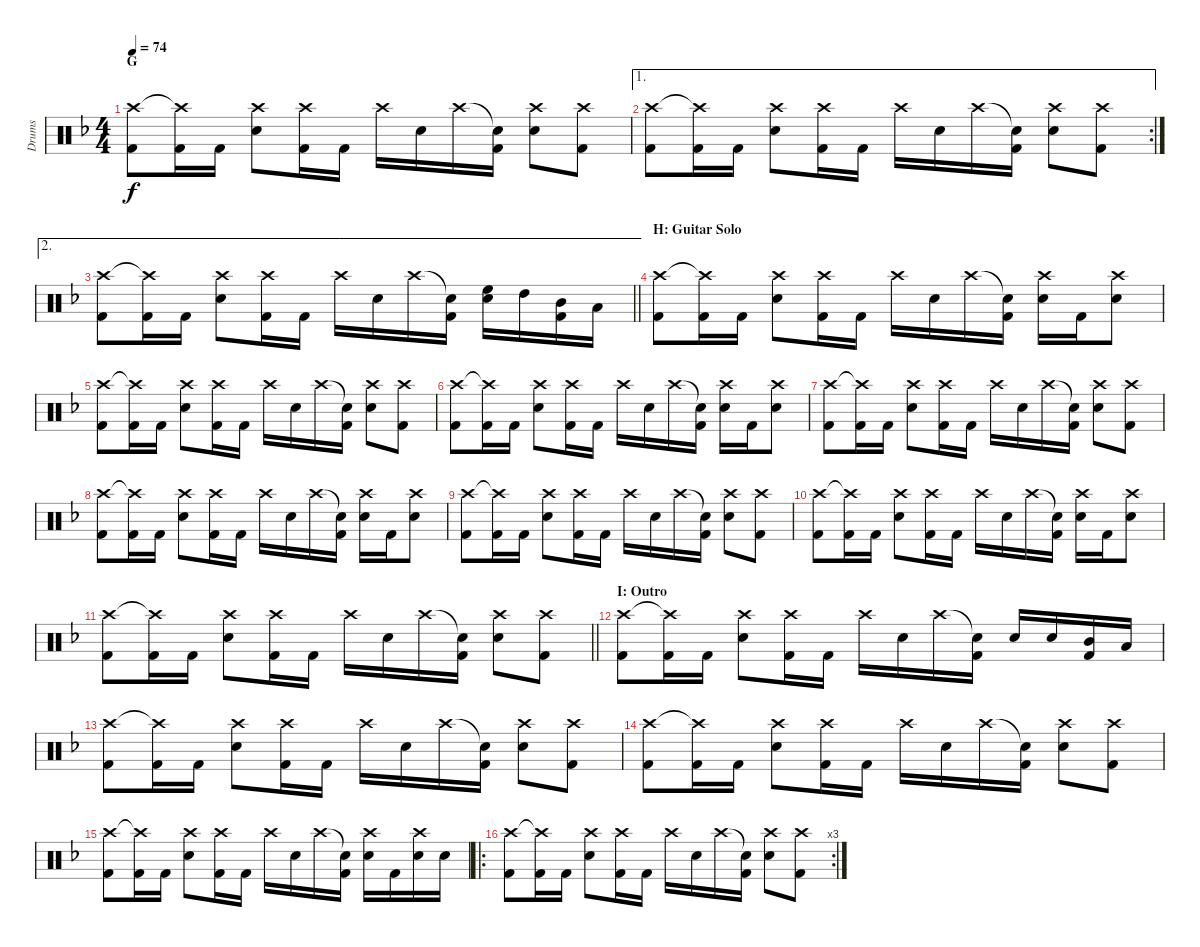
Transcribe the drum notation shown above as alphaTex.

\track ("Drums" "Drums") {instrument percussion}
\staff {score}
\articulation defaults
\ts (4 4)
\section ("" "G")
\tempo 74
\clef neutral
\ks dminor
("Crash high (hit)" "Kick (hit) 2").8{dy f} ("Crash high (hit)"{t} "Kick (hit) 2").16 "Kick (hit) 2".16 ("Crash high (hit)" "Snare (hit) 2").8 ("Crash high (hit)" "Kick (hit) 2").16 "Kick (hit) 2".16 "Crash high (hit)".16 "Snare (hit) 2".16 "Crash high (hit)".16 ("Snare (hit)"{t} "Kick (hit) 2").16 ("Crash high (hit)" "Snare (hit) 2").8 ("Crash high (hit)" "Kick (hit) 2").8 |
\ae 1
\rc 2
("Crash high (hit)" "Kick (hit) 2").8 ("Crash high (hit)"{t} "Kick (hit) 2").16 "Kick (hit) 2".16 ("Crash high (hit)" "Snare (hit) 2").8 ("Crash high (hit)" "Kick (hit) 2").16 "Kick (hit) 2".16 "Crash high (hit)".16 "Snare (hit) 2".16 "Crash high (hit)".16 ("Snare (hit)"{t} "Kick (hit) 2").16 ("Crash high (hit)" "Snare (hit) 2").8 ("Crash high (hit)" "Kick (hit) 2").8 |
\ae 2
\barLineRight lightlight
("Crash high (hit)" "Kick (hit) 2").8 ("Crash high (hit)"{t} "Kick (hit) 2").16 "Kick (hit) 2".16 ("Crash high (hit)" "Snare (hit) 2").8 ("Crash high (hit)" "Kick (hit) 2").16 "Kick (hit) 2".16 "Crash high (hit)".16 "Snare (hit) 2".16 "Crash high (hit)".16 ("Snare (hit)"{t} "Kick (hit) 2").16 ("High Floor Tom (hit)" "Snare (hit) 2").16 "High Tom (hit)".16 ("Mid Tom (hit)" "Kick (hit) 2").16 "Low Tom (hit)".16 |
\section ("" "H: Guitar Solo")
("Crash high (hit)" "Kick (hit) 2").8 ("Crash high (hit)"{t} "Kick (hit) 2").16 "Kick (hit) 2".16 ("Crash high (hit)" "Snare (hit) 2").8 ("Crash high (hit)" "Kick (hit) 2").16 "Kick (hit) 2".16 "Crash high (hit)".16 "Snare (hit) 2".16 "Crash high (hit)".16 ("Snare (hit)"{t} "Kick (hit) 2").16 ("Crash high (hit)" "Snare (hit) 2").16 "Kick (hit) 2".16 ("Crash high (hit)" "Snare (hit) 2").8 |
("Crash high (hit)" "Kick (hit) 2").8 ("Crash high (hit)"{t} "Kick (hit) 2").16 "Kick (hit) 2".16 ("Crash high (hit)" "Snare (hit) 2").8 ("Crash high (hit)" "Kick (hit) 2").16 "Kick (hit) 2".16 "Crash high (hit)".16 "Snare (hit) 2".16 "Crash high (hit)".16 ("Snare (hit)"{t} "Kick (hit) 2").16 ("Crash high (hit)" "Snare (hit) 2").8 ("Crash high (hit)" "Kick (hit) 2").8 |
("Crash high (hit)" "Kick (hit) 2").8 ("Crash high (hit)"{t} "Kick (hit) 2").16 "Kick (hit) 2".16 ("Crash high (hit)" "Snare (hit) 2").8 ("Crash high (hit)" "Kick (hit) 2").16 "Kick (hit) 2".16 "Crash high (hit)".16 "Snare (hit) 2".16 "Crash high (hit)".16 ("Snare (hit)"{t} "Kick (hit) 2").16 ("Crash high (hit)" "Snare (hit) 2").16 "Kick (hit) 2".16 ("Crash high (hit)" "Snare (hit) 2").8 |
("Crash high (hit)" "Kick (hit) 2").8 ("Crash high (hit)"{t} "Kick (hit) 2").16 "Kick (hit) 2".16 ("Crash high (hit)" "Snare (hit) 2").8 ("Crash high (hit)" "Kick (hit) 2").16 "Kick (hit) 2".16 "Crash high (hit)".16 "Snare (hit) 2".16 "Crash high (hit)".16 ("Snare (hit)"{t} "Kick (hit) 2").16 ("Crash high (hit)" "Snare (hit) 2").8 ("Crash high (hit)" "Kick (hit) 2").8 |
("Crash high (hit)" "Kick (hit) 2").8 ("Crash high (hit)"{t} "Kick (hit) 2").16 "Kick (hit) 2".16 ("Crash high (hit)" "Snare (hit) 2").8 ("Crash high (hit)" "Kick (hit) 2").16 "Kick (hit) 2".16 "Crash high (hit)".16 "Snare (hit) 2".16 "Crash high (hit)".16 ("Snare (hit)"{t} "Kick (hit) 2").16 ("Crash high (hit)" "Snare (hit) 2").16 "Kick (hit) 2".16 ("Crash high (hit)" "Snare (hit) 2").8 |
("Crash high (hit)" "Kick (hit) 2").8 ("Crash high (hit)"{t} "Kick (hit) 2").16 "Kick (hit) 2".16 ("Crash high (hit)" "Snare (hit) 2").8 ("Crash high (hit)" "Kick (hit) 2").16 "Kick (hit) 2".16 "Crash high (hit)".16 "Snare (hit) 2".16 "Crash high (hit)".16 ("Snare (hit)"{t} "Kick (hit) 2").16 ("Crash high (hit)" "Snare (hit) 2").8 ("Crash high (hit)" "Kick (hit) 2").8 |
("Crash high (hit)" "Kick (hit) 2").8 ("Crash high (hit)"{t} "Kick (hit) 2").16 "Kick (hit) 2".16 ("Crash high (hit)" "Snare (hit) 2").8 ("Crash high (hit)" "Kick (hit) 2").16 "Kick (hit) 2".16 "Crash high (hit)".16 "Snare (hit) 2".16 "Crash high (hit)".16 ("Snare (hit)"{t} "Kick (hit) 2").16 ("Crash high (hit)" "Snare (hit) 2").16 "Kick (hit) 2".16 ("Crash high (hit)" "Snare (hit) 2").8 |
\barLineRight lightlight
("Crash high (hit)" "Kick (hit) 2").8 ("Crash high (hit)"{t} "Kick (hit) 2").16 "Kick (hit) 2".16 ("Crash high (hit)" "Snare (hit) 2").8 ("Crash high (hit)" "Kick (hit) 2").16 "Kick (hit) 2".16 "Crash high (hit)".16 "Snare (hit) 2".16 "Crash high (hit)".16 ("Snare (hit)"{t} "Kick (hit) 2").16 ("Crash high (hit)" "Snare (hit) 2").8 ("Crash high (hit)" "Kick (hit) 2").8 |
\section ("" "I: Outro")
("Crash high (hit)" "Kick (hit) 2").8 ("Crash high (hit)"{t} "Kick (hit) 2").16 "Kick (hit) 2".16 ("Crash high (hit)" "Snare (hit) 2").8 ("Crash high (hit)" "Kick (hit) 2").16 "Kick (hit) 2".16 "Crash high (hit)".16 "Snare (hit) 2".16 "Crash high (hit)".16 ("Snare (hit)"{t} "Kick (hit) 2").16 "Snare (hit) 2".16 "Snare (hit) 2".16 ("Mid Tom (hit)" "Kick (hit) 2").16 "Low Tom (hit)".16 |
("Crash high (hit)" "Kick (hit) 2").8 ("Crash high (hit)"{t} "Kick (hit) 2").16 "Kick (hit) 2".16 ("Crash high (hit)" "Snare (hit) 2").8 ("Crash high (hit)" "Kick (hit) 2").16 "Kick (hit) 2".16 "Crash high (hit)".16 "Snare (hit) 2".16 "Crash high (hit)".16 ("Snare (hit)"{t} "Kick (hit) 2").16 ("Crash high (hit)" "Snare (hit) 2").8 ("Crash high (hit)" "Kick (hit) 2").8 |
("Crash high (hit)" "Kick (hit) 2").8 ("Crash high (hit)"{t} "Kick (hit) 2").16 "Kick (hit) 2".16 ("Crash high (hit)" "Snare (hit) 2").8 ("Crash high (hit)" "Kick (hit) 2").16 "Kick (hit) 2".16 "Crash high (hit)".16 "Snare (hit) 2".16 "Crash high (hit)".16 ("Snare (hit)"{t} "Kick (hit) 2").16 ("Crash high (hit)" "Snare (hit) 2").8 ("Crash high (hit)" "Kick (hit) 2").8 |
("Crash high (hit)" "Kick (hit) 2").8 ("Crash high (hit)"{t} "Kick (hit) 2").16 "Kick (hit) 2".16 ("Crash high (hit)" "Snare (hit) 2").8 ("Crash high (hit)" "Kick (hit) 2").16 "Kick (hit) 2".16 "Crash high (hit)".16 "Snare (hit) 2".16 "Crash high (hit)".16 ("Snare (hit)"{t} "Kick (hit) 2").16 ("Crash high (hit)" "Snare (hit) 2").16 "Kick (hit) 2".16 ("Crash high (hit)" "Snare (hit) 2").16 "Snare (hit) 2".16 |
\ro
\rc 3
("Crash high (hit)" "Kick (hit) 2").8 ("Crash high (hit)"{t} "Kick (hit) 2").16 "Kick (hit) 2".16 ("Crash high (hit)" "Snare (hit) 2").8 ("Crash high (hit)" "Kick (hit) 2").16 "Kick (hit) 2".16 "Crash high (hit)".16 "Snare (hit) 2".16 "Crash high (hit)".16 ("Snare (hit)"{t} "Kick (hit) 2").16 ("Crash high (hit)" "Snare (hit) 2").8 ("Crash high (hit)" "Kick (hit) 2").8
